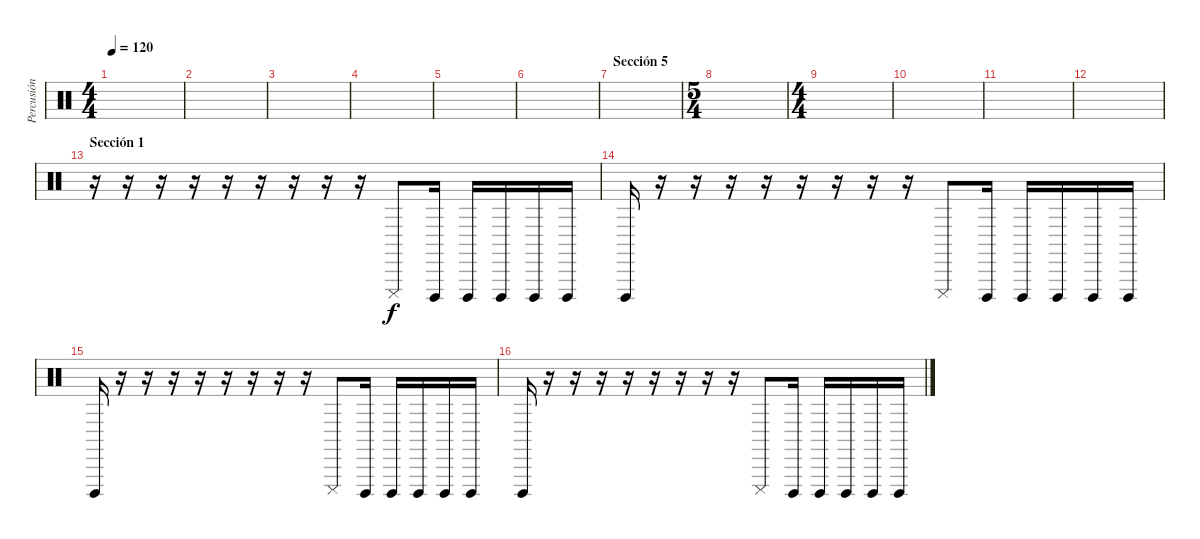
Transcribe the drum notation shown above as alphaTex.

\track ("Percusión" "Percusión") {instrument percussion}
\staff {score}
\articulation defaults
\ts (4 4)
\tempo 120
\clef neutral
\ks c
|
|
|
|
|
|
\section ("" "Sección 5")
|
\ts (5 4)
|
\ts (4 4)
|
|
|
|
\section ("" "Sección 1")
r.16 r.16 r.16 r.16 r.16 r.16 r.16 r.16 r.16 "Cuica (mute)".8 "Cuica (open)".16 "Cuica (open)".16 "Cuica (open)".16 "Cuica (open)".16 "Cuica (open)".16 |
"Cuica (open)".16 r.16 r.16 r.16 r.16 r.16 r.16 r.16 r.16 "Cuica (mute)".8 "Cuica (open)".16 "Cuica (open)".16 "Cuica (open)".16 "Cuica (open)".16 "Cuica (open)".16 |
"Cuica (open)".16 r.16 r.16 r.16 r.16 r.16 r.16 r.16 r.16 "Cuica (mute)".8 "Cuica (open)".16 "Cuica (open)".16 "Cuica (open)".16 "Cuica (open)".16 "Cuica (open)".16 |
"Cuica (open)".16 r.16 r.16 r.16 r.16 r.16 r.16 r.16 r.16 "Cuica (mute)".8 "Cuica (open)".16 "Cuica (open)".16 "Cuica (open)".16 "Cuica (open)".16 "Cuica (open)".16
